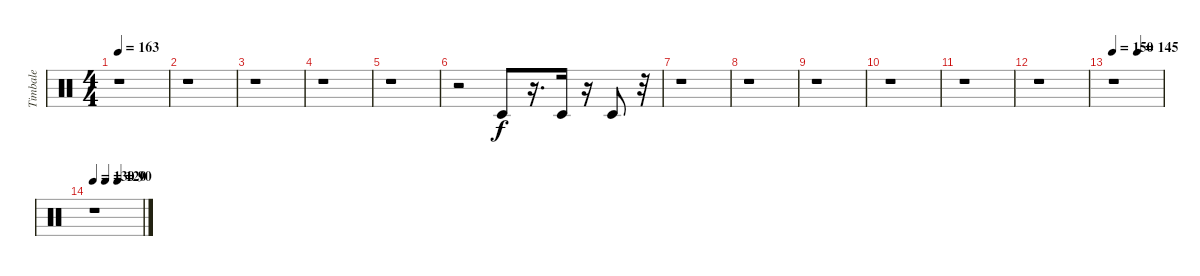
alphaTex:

\track ("Timbale" "Timbale") {instrument percussion}
\staff {score}
\articulation defaults
\ts (4 4)
\tempo 163
\clef neutral
\ks c
r.1{dy f} |
r.1 |
r.1 |
r.1 |
r.1 |
r.2 "Timbale low (hit)".8 r.16{d} "Timbale low (hit)".16 r.16 "Timbale low (hit)".8 r.32 |
r.1 |
r.1 |
r.1 |
r.1 |
r.1 |
r.1 |
\tempo 150
\tempo (145 0.5)
r.1 |
\tempo 130
\tempo (120 0.25)
\tempo (90 0.5)
r.1
